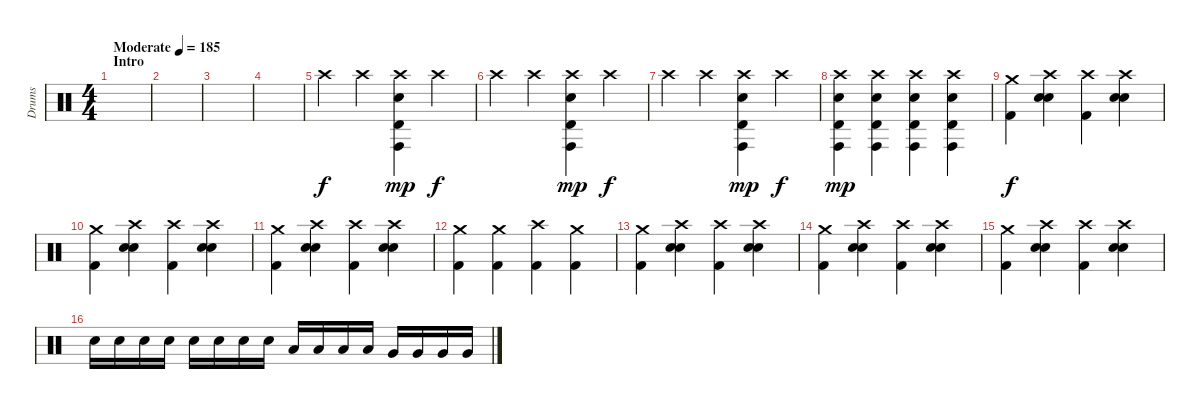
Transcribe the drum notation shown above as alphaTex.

\track ("Drums" "Drums") {instrument percussion}
\staff {score}
\articulation defaults
\ts (4 4)
\section ("" "Intro")
\tempo (185 "Moderate")
\clef neutral
\ks c
|
|
|
|
"Crash high (hit)".4 "Crash high (hit)".4 ("Crash high (hit)" "Conga high (hit)" "Electric Snare (hit)" "Timbale high (hit)").4{dy mp} "Crash high (hit)".4{dy f} |
"Crash high (hit)".4 "Crash high (hit)".4 ("Crash high (hit)" "Conga high (hit)" "Electric Snare (hit)" "Timbale high (hit)").4{dy mp} "Crash high (hit)".4{dy f} |
"Crash high (hit)".4 "Crash high (hit)".4 ("Crash high (hit)" "Conga high (hit)" "Electric Snare (hit)" "Timbale high (hit)").4{dy mp} "Crash high (hit)".4{dy f} |
("Crash high (hit)" "Conga high (hit)" "Electric Snare (hit)" "Timbale high (hit)").4{dy mp} ("Crash high (hit)" "Conga high (hit)" "Electric Snare (hit)" "Timbale high (hit)").4 ("Crash high (hit)" "Conga high (hit)" "Electric Snare (hit)" "Timbale high (hit)").4 ("Crash high (hit)" "Conga high (hit)" "Electric Snare (hit)" "Timbale high (hit)").4 |
("Crash medium (hit)" "Kick (hit) 2").4{dy f volume 12} ("Crash high (hit)" "Electric Snare (hit)" "Snare (hit) 2").4 ("Crash high (hit)" "Kick (hit) 2").4 ("Crash high (hit)" "Electric Snare (hit)" "Snare (hit) 2").4 |
("Crash medium (hit)" "Kick (hit) 2").4 ("Crash high (hit)" "Electric Snare (hit)" "Snare (hit) 2").4 ("Crash high (hit)" "Kick (hit) 2").4 ("Crash high (hit)" "Electric Snare (hit)" "Snare (hit) 2").4 |
("Crash medium (hit)" "Kick (hit) 2").4 ("Crash high (hit)" "Electric Snare (hit)" "Snare (hit) 2").4 ("Crash high (hit)" "Kick (hit) 2").4 ("Crash high (hit)" "Electric Snare (hit)" "Snare (hit) 2").4 |
("Crash medium (hit)" "Kick (hit) 2").4 ("Crash medium (hit)" "Kick (hit) 2").4 ("Crash high (hit)" "Kick (hit) 2").4 ("Crash medium (hit)" "Kick (hit) 2").4 |
("Crash medium (hit)" "Kick (hit) 2").4 ("Crash high (hit)" "Electric Snare (hit)" "Snare (hit) 2").4 ("Crash high (hit)" "Kick (hit) 2").4 ("Crash high (hit)" "Electric Snare (hit)" "Snare (hit) 2").4 |
("Crash medium (hit)" "Kick (hit) 2").4 ("Crash high (hit)" "Electric Snare (hit)" "Snare (hit) 2").4 ("Crash high (hit)" "Kick (hit) 2").4 ("Crash high (hit)" "Electric Snare (hit)" "Snare (hit) 2").4 |
("Crash medium (hit)" "Kick (hit) 2").4 ("Crash high (hit)" "Electric Snare (hit)" "Snare (hit) 2").4 ("Crash high (hit)" "Kick (hit) 2").4 ("Crash high (hit)" "Electric Snare (hit)" "Snare (hit) 2").4 |
"Electric Snare (hit)".16 "Electric Snare (hit)".16 "Electric Snare (hit)".16 "Electric Snare (hit)".16 "Electric Snare (hit)".16 "Electric Snare (hit)".16 "Electric Snare (hit)".16 "Electric Snare (hit)".16 "Low Tom (hit)".16 "Low Tom (hit)".16 "Low Tom (hit)".16 "Low Tom (hit)".16 "Very Low Tom (hit)".16 "Very Low Tom (hit)".16 "Very Low Tom (hit)".16 "Very Low Tom (hit)".16
